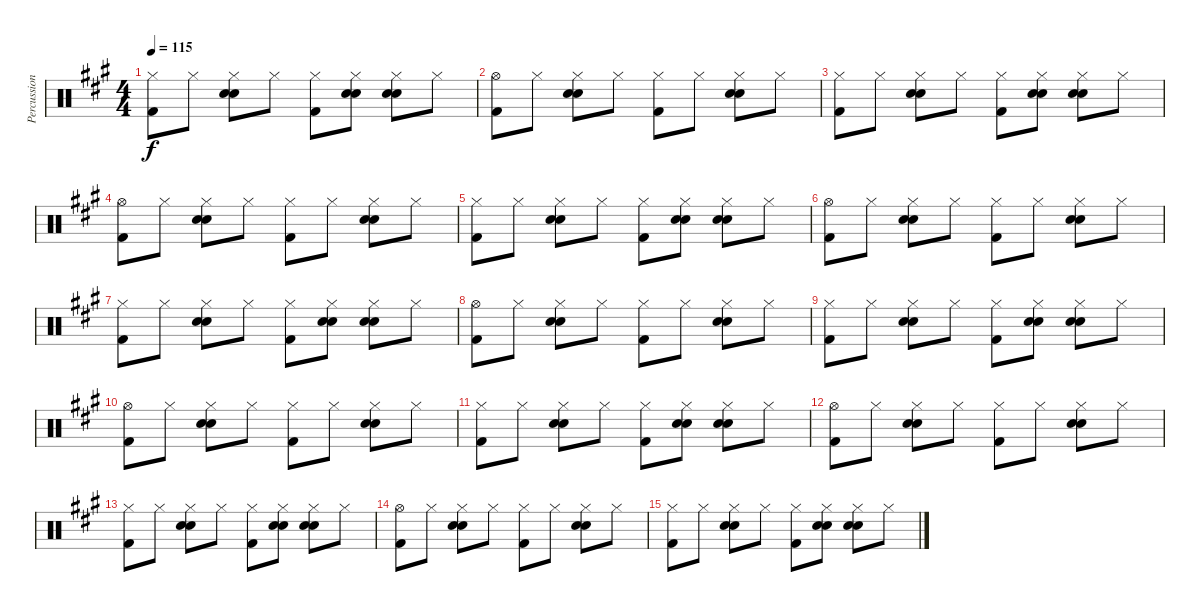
\track ("Percussion" "Percussion") {instrument percussion}
\staff {score}
\articulation defaults
\ts (4 4)
\tempo 115
\clef neutral
\ks a
("Hi-Hat (closed)" "Kick (hit) 2").8{dy f} "Hi-Hat (closed)".8 ("Hi-Hat (closed)" "Hand Clap (hit)" "Electric Snare (hit)").8 "Hi-Hat (closed)".8 ("Hi-Hat (closed)" "Kick (hit) 2").8 ("Hi-Hat (closed)" "Hand Clap (hit)" "Electric Snare (hit)").8 ("Hi-Hat (closed)" "Hand Clap (hit)" "Electric Snare (hit)").8 "Hi-Hat (closed)".8 |
("Hi-Hat (open)" "Kick (hit) 2").8 "Hi-Hat (closed)".8 ("Hi-Hat (closed)" "Hand Clap (hit)" "Electric Snare (hit)").8 "Hi-Hat (closed)".8 ("Hi-Hat (closed)" "Kick (hit) 2").8 "Hi-Hat (closed)".8 ("Hi-Hat (closed)" "Hand Clap (hit)" "Electric Snare (hit)").8 "Hi-Hat (closed)".8 |
("Hi-Hat (closed)" "Kick (hit) 2").8 "Hi-Hat (closed)".8 ("Hi-Hat (closed)" "Hand Clap (hit)" "Electric Snare (hit)").8 "Hi-Hat (closed)".8 ("Hi-Hat (closed)" "Kick (hit) 2").8 ("Hi-Hat (closed)" "Hand Clap (hit)" "Electric Snare (hit)").8 ("Hi-Hat (closed)" "Hand Clap (hit)" "Electric Snare (hit)").8 "Hi-Hat (closed)".8 |
("Hi-Hat (open)" "Kick (hit) 2").8 "Hi-Hat (closed)".8 ("Hi-Hat (closed)" "Hand Clap (hit)" "Electric Snare (hit)").8 "Hi-Hat (closed)".8 ("Hi-Hat (closed)" "Kick (hit) 2").8 "Hi-Hat (closed)".8 ("Hi-Hat (closed)" "Hand Clap (hit)" "Electric Snare (hit)").8 "Hi-Hat (closed)".8 |
("Hi-Hat (closed)" "Kick (hit) 2").8 "Hi-Hat (closed)".8 ("Hi-Hat (closed)" "Hand Clap (hit)" "Electric Snare (hit)").8 "Hi-Hat (closed)".8 ("Hi-Hat (closed)" "Kick (hit) 2").8 ("Hi-Hat (closed)" "Hand Clap (hit)" "Electric Snare (hit)").8 ("Hi-Hat (closed)" "Hand Clap (hit)" "Electric Snare (hit)").8 "Hi-Hat (closed)".8 |
("Hi-Hat (open)" "Kick (hit) 2").8 "Hi-Hat (closed)".8 ("Hi-Hat (closed)" "Hand Clap (hit)" "Electric Snare (hit)").8 "Hi-Hat (closed)".8 ("Hi-Hat (closed)" "Kick (hit) 2").8 "Hi-Hat (closed)".8 ("Hi-Hat (closed)" "Hand Clap (hit)" "Electric Snare (hit)").8 "Hi-Hat (closed)".8 |
("Hi-Hat (closed)" "Kick (hit) 2").8 "Hi-Hat (closed)".8 ("Hi-Hat (closed)" "Hand Clap (hit)" "Electric Snare (hit)").8 "Hi-Hat (closed)".8 ("Hi-Hat (closed)" "Kick (hit) 2").8 ("Hi-Hat (closed)" "Hand Clap (hit)" "Electric Snare (hit)").8 ("Hi-Hat (closed)" "Hand Clap (hit)" "Electric Snare (hit)").8 "Hi-Hat (closed)".8 |
("Hi-Hat (open)" "Kick (hit) 2").8 "Hi-Hat (closed)".8 ("Hi-Hat (closed)" "Hand Clap (hit)" "Electric Snare (hit)").8 "Hi-Hat (closed)".8 ("Hi-Hat (closed)" "Kick (hit) 2").8 "Hi-Hat (closed)".8 ("Hi-Hat (closed)" "Hand Clap (hit)" "Electric Snare (hit)").8 "Hi-Hat (closed)".8 |
("Hi-Hat (closed)" "Kick (hit) 2").8 "Hi-Hat (closed)".8 ("Hi-Hat (closed)" "Hand Clap (hit)" "Electric Snare (hit)").8 "Hi-Hat (closed)".8 ("Hi-Hat (closed)" "Kick (hit) 2").8 ("Hi-Hat (closed)" "Hand Clap (hit)" "Electric Snare (hit)").8 ("Hi-Hat (closed)" "Hand Clap (hit)" "Electric Snare (hit)").8 "Hi-Hat (closed)".8 |
("Hi-Hat (open)" "Kick (hit) 2").8 "Hi-Hat (closed)".8 ("Hi-Hat (closed)" "Hand Clap (hit)" "Electric Snare (hit)").8 "Hi-Hat (closed)".8 ("Hi-Hat (closed)" "Kick (hit) 2").8 "Hi-Hat (closed)".8 ("Hi-Hat (closed)" "Hand Clap (hit)" "Electric Snare (hit)").8 "Hi-Hat (closed)".8 |
("Hi-Hat (closed)" "Kick (hit) 2").8 "Hi-Hat (closed)".8 ("Hi-Hat (closed)" "Hand Clap (hit)" "Electric Snare (hit)").8 "Hi-Hat (closed)".8 ("Hi-Hat (closed)" "Kick (hit) 2").8 ("Hi-Hat (closed)" "Hand Clap (hit)" "Electric Snare (hit)").8 ("Hi-Hat (closed)" "Hand Clap (hit)" "Electric Snare (hit)").8 "Hi-Hat (closed)".8 |
("Hi-Hat (open)" "Kick (hit) 2").8 "Hi-Hat (closed)".8 ("Hi-Hat (closed)" "Hand Clap (hit)" "Electric Snare (hit)").8 "Hi-Hat (closed)".8 ("Hi-Hat (closed)" "Kick (hit) 2").8 "Hi-Hat (closed)".8 ("Hi-Hat (closed)" "Hand Clap (hit)" "Electric Snare (hit)").8 "Hi-Hat (closed)".8 |
("Hi-Hat (closed)" "Kick (hit) 2").8 "Hi-Hat (closed)".8 ("Hi-Hat (closed)" "Hand Clap (hit)" "Electric Snare (hit)").8 "Hi-Hat (closed)".8 ("Hi-Hat (closed)" "Kick (hit) 2").8 ("Hi-Hat (closed)" "Hand Clap (hit)" "Electric Snare (hit)").8 ("Hi-Hat (closed)" "Hand Clap (hit)" "Electric Snare (hit)").8 "Hi-Hat (closed)".8 |
("Hi-Hat (open)" "Kick (hit) 2").8 "Hi-Hat (closed)".8 ("Hi-Hat (closed)" "Hand Clap (hit)" "Electric Snare (hit)").8 "Hi-Hat (closed)".8 ("Hi-Hat (closed)" "Kick (hit) 2").8 "Hi-Hat (closed)".8 ("Hi-Hat (closed)" "Hand Clap (hit)" "Electric Snare (hit)").8 "Hi-Hat (closed)".8 |
("Hi-Hat (closed)" "Kick (hit) 2").8 "Hi-Hat (closed)".8 ("Hi-Hat (closed)" "Hand Clap (hit)" "Electric Snare (hit)").8 "Hi-Hat (closed)".8 ("Hi-Hat (closed)" "Kick (hit) 2").8 ("Hi-Hat (closed)" "Hand Clap (hit)" "Electric Snare (hit)").8 ("Hi-Hat (closed)" "Hand Clap (hit)" "Electric Snare (hit)").8 "Hi-Hat (closed)".8
